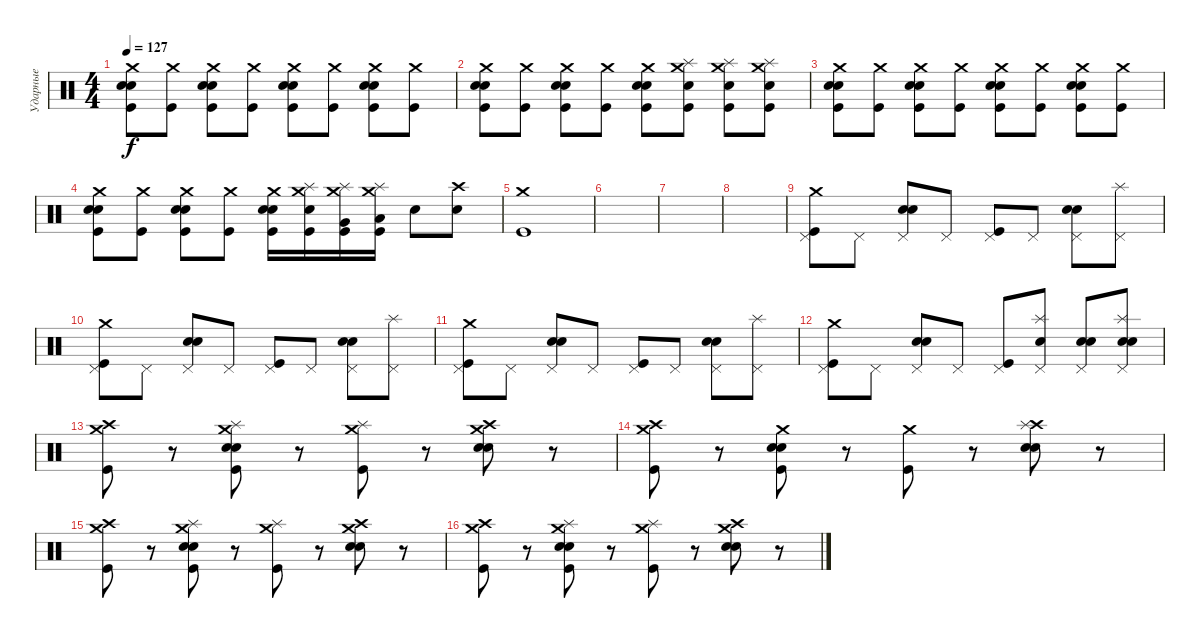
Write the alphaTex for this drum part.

\track ("Ударные" "Ударные") {instrument percussion}
\staff {score}
\articulation defaults
\ts (4 4)
\tempo 127
\clef neutral
\ks c
("Crash medium (hit)" "Snare (hit) 2" "Snare (hit) 2" "Kick (hit)").8{dy f} ("Crash medium (hit)" "Kick (hit)").8 ("Crash medium (hit)" "Snare (hit) 2" "Snare (hit) 2" "Kick (hit)").8 ("Crash medium (hit)" "Kick (hit)").8 ("Crash medium (hit)" "Snare (hit) 2" "Snare (hit) 2" "Kick (hit)").8 ("Crash medium (hit)" "Kick (hit)").8 ("Crash medium (hit)" "Snare (hit) 2" "Snare (hit) 2" "Kick (hit)").8 ("Crash medium (hit)" "Kick (hit)").8 |
("Crash medium (hit)" "Snare (hit) 2" "Snare (hit) 2" "Kick (hit)").8 ("Crash medium (hit)" "Kick (hit)").8 ("Crash medium (hit)" "Snare (hit) 2" "Snare (hit) 2" "Kick (hit)").8 ("Crash medium (hit)" "Kick (hit)").8 ("Crash medium (hit)" "Snare (hit) 2" "Snare (hit) 2" "Kick (hit)").8 ("Crash medium (hit)" "Electric Snare (hit)" "Splash (hit)" "Kick (hit)").8 ("Crash medium (hit)" "Electric Snare (hit)" "Splash (hit)" "Kick (hit)").8 ("Crash medium (hit)" "Electric Snare (hit)" "Splash (hit)" "Kick (hit)").8 |
("Crash medium (hit)" "Snare (hit) 2" "Snare (hit) 2" "Kick (hit)").8 ("Crash medium (hit)" "Kick (hit)").8 ("Crash medium (hit)" "Snare (hit) 2" "Snare (hit) 2" "Kick (hit)").8 ("Crash medium (hit)" "Kick (hit)").8 ("Crash medium (hit)" "Snare (hit) 2" "Snare (hit) 2" "Kick (hit)").8 ("Crash medium (hit)" "Kick (hit)").8 ("Crash medium (hit)" "Snare (hit) 2" "Snare (hit) 2" "Kick (hit)").8 ("Crash medium (hit)" "Kick (hit)").8 |
("Crash medium (hit)" "Snare (hit) 2" "Snare (hit) 2" "Kick (hit)").8 ("Crash medium (hit)" "Kick (hit)").8 ("Crash medium (hit)" "Snare (hit) 2" "Snare (hit) 2" "Kick (hit)").8 ("Crash medium (hit)" "Kick (hit)").8 ("Crash medium (hit)" "Snare (hit) 2" "Snare (hit) 2" "Kick (hit)").16 ("Crash medium (hit)" "Electric Snare (hit)" "Splash (hit)" "Kick (hit)").16 ("Crash medium (hit)" "Very Low Tom (hit)" "Splash (hit)" "Kick (hit)").16 ("Crash medium (hit)" "Low Floor Tom (hit)" "Splash (hit)" "Kick (hit)").16 "Electric Snare (hit)".8 ("Crash high (hit)" "Snare (hit) 2").8 |
("Crash medium (hit)" "Kick (hit)").1 |
|
|
|
("Pedal Hi-Hat (hit)" "Crash medium (hit)" "Kick (hit)").8 "Pedal Hi-Hat (hit)".8 ("Pedal Hi-Hat (hit)" "Snare (hit) 2" "Snare (hit) 2").8 "Pedal Hi-Hat (hit)".8 ("Pedal Hi-Hat (hit)" "Kick (hit)").8 "Pedal Hi-Hat (hit)".8 ("Pedal Hi-Hat (hit)" "Snare (hit) 2" "Snare (hit) 2").8 ("Pedal Hi-Hat (hit)" "Splash (hit)").8 |
("Pedal Hi-Hat (hit)" "Crash medium (hit)" "Kick (hit)").8 "Pedal Hi-Hat (hit)".8 ("Pedal Hi-Hat (hit)" "Snare (hit) 2" "Snare (hit) 2").8 "Pedal Hi-Hat (hit)".8 ("Pedal Hi-Hat (hit)" "Kick (hit)").8 "Pedal Hi-Hat (hit)".8 ("Pedal Hi-Hat (hit)" "Snare (hit) 2" "Snare (hit) 2").8 ("Pedal Hi-Hat (hit)" "Splash (hit)").8 |
("Pedal Hi-Hat (hit)" "Crash medium (hit)" "Kick (hit)").8 "Pedal Hi-Hat (hit)".8 ("Pedal Hi-Hat (hit)" "Snare (hit) 2" "Snare (hit) 2").8 "Pedal Hi-Hat (hit)".8 ("Pedal Hi-Hat (hit)" "Kick (hit)").8 "Pedal Hi-Hat (hit)".8 ("Pedal Hi-Hat (hit)" "Snare (hit) 2" "Snare (hit) 2").8 ("Pedal Hi-Hat (hit)" "Splash (hit)").8 |
("Pedal Hi-Hat (hit)" "Crash medium (hit)" "Kick (hit)").8 "Pedal Hi-Hat (hit)".8 ("Pedal Hi-Hat (hit)" "Snare (hit) 2" "Snare (hit) 2").8 "Pedal Hi-Hat (hit)".8 ("Pedal Hi-Hat (hit)" "Kick (hit)").8 ("Pedal Hi-Hat (hit)" "Splash (hit)" "Snare (hit) 2").8 ("Pedal Hi-Hat (hit)" "Snare (hit) 2" "Snare (hit) 2").8 ("Pedal Hi-Hat (hit)" "Splash (hit)" "Electric Snare (hit)" "Electric Snare (hit)").8 |
("Crash high (hit)" "Crash medium (hit)" "Kick (hit)").8 r.8 ("Crash medium (hit)" "Splash (hit)" "Electric Snare (hit)" "Electric Snare (hit)" "Kick (hit)").8 r.8 ("Crash medium (hit)" "Splash (hit)" "Kick (hit)").8 r.8 ("Crash high (hit)" "Crash medium (hit)" "Electric Snare (hit)" "Electric Snare (hit)").8 r.8 |
("Crash high (hit)" "Crash medium (hit)" "Kick (hit)").8 r.8 ("Crash medium (hit)" "Electric Snare (hit)" "Electric Snare (hit)" "Kick (hit)").8 r.8 ("Crash medium (hit)" "Kick (hit)").8 r.8 ("Crash high (hit)" "Splash (hit)" "Electric Snare (hit)" "Electric Snare (hit)").8 r.8 |
("Crash high (hit)" "Crash medium (hit)" "Kick (hit)").8 r.8 ("Crash medium (hit)" "Splash (hit)" "Electric Snare (hit)" "Electric Snare (hit)" "Kick (hit)").8 r.8 ("Crash medium (hit)" "Splash (hit)" "Kick (hit)").8 r.8 ("Crash high (hit)" "Crash medium (hit)" "Electric Snare (hit)" "Electric Snare (hit)").8 r.8 |
("Crash high (hit)" "Crash medium (hit)" "Kick (hit)").8 r.8 ("Crash medium (hit)" "Splash (hit)" "Electric Snare (hit)" "Electric Snare (hit)" "Kick (hit)").8 r.8 ("Crash medium (hit)" "Splash (hit)" "Kick (hit)").8 r.8 ("Crash high (hit)" "Crash medium (hit)" "Electric Snare (hit)" "Electric Snare (hit)").8 r.8
